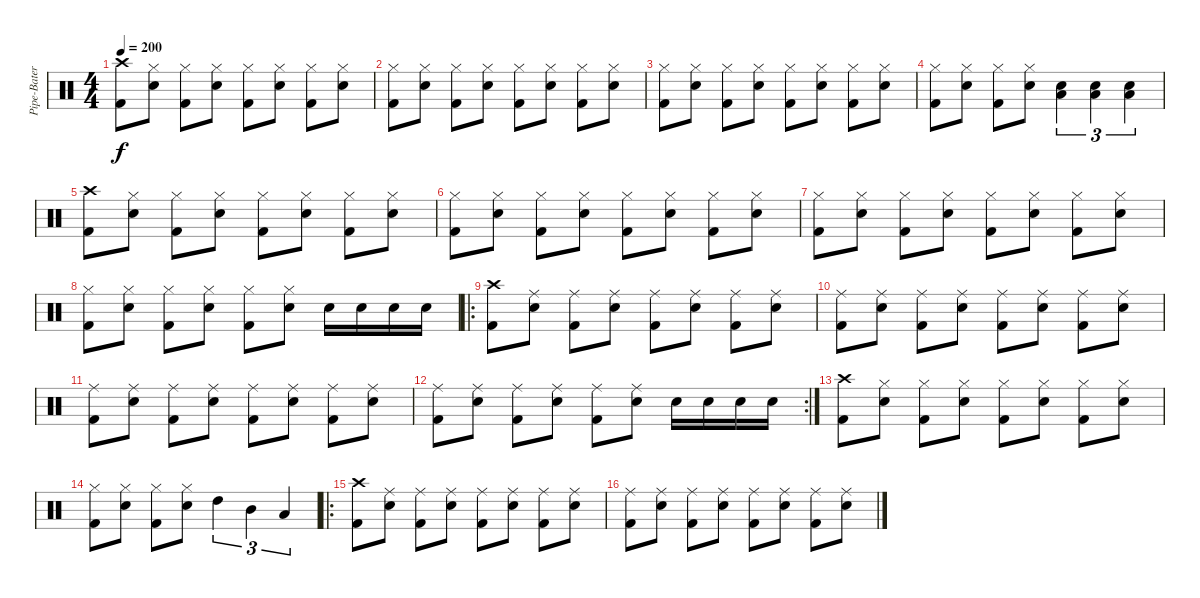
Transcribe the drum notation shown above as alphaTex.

\track ("Pipe-Bateria" "Pipe-Bater") {instrument percussion}
\staff {score}
\articulation defaults
\ts (4 4)
\tempo 200
\clef neutral
\ks c
("Kick (hit) 2" "Crash high (hit)").8{dy f} ("Snare (hit) 2" "Hi-Hat (closed)").8 ("Kick (hit) 2" "Hi-Hat (closed)").8 ("Snare (hit) 2" "Hi-Hat (closed)").8 ("Kick (hit) 2" "Hi-Hat (closed)").8 ("Snare (hit) 2" "Hi-Hat (closed)").8 ("Kick (hit) 2" "Hi-Hat (closed)").8 ("Snare (hit) 2" "Hi-Hat (closed)").8 |
("Kick (hit) 2" "Hi-Hat (closed)").8 ("Snare (hit) 2" "Hi-Hat (closed)").8 ("Kick (hit) 2" "Hi-Hat (closed)").8 ("Snare (hit) 2" "Hi-Hat (closed)").8 ("Kick (hit) 2" "Hi-Hat (closed)").8 ("Snare (hit) 2" "Hi-Hat (closed)").8 ("Kick (hit) 2" "Hi-Hat (closed)").8 ("Snare (hit) 2" "Hi-Hat (closed)").8 |
("Kick (hit) 2" "Hi-Hat (closed)").8 ("Snare (hit) 2" "Hi-Hat (closed)").8 ("Kick (hit) 2" "Hi-Hat (closed)").8 ("Snare (hit) 2" "Hi-Hat (closed)").8 ("Kick (hit) 2" "Hi-Hat (closed)").8 ("Snare (hit) 2" "Hi-Hat (closed)").8 ("Kick (hit) 2" "Hi-Hat (closed)").8 ("Snare (hit) 2" "Hi-Hat (closed)").8 |
("Kick (hit) 2" "Hi-Hat (closed)").8 ("Snare (hit) 2" "Hi-Hat (closed)").8 ("Kick (hit) 2" "Hi-Hat (closed)").8 ("Snare (hit) 2" "Hi-Hat (closed)").8 ("Snare (hit) 2" "Low Tom (hit)").4{tu (3 2)} ("Snare (hit) 2" "Low Tom (hit)").4{tu (3 2)} ("Snare (hit) 2" "Low Tom (hit)").4{tu (3 2)} |
("Kick (hit) 2" "Crash high (hit)").8 ("Snare (hit) 2" "Hi-Hat (closed)").8 ("Kick (hit) 2" "Hi-Hat (closed)").8 ("Snare (hit) 2" "Hi-Hat (closed)").8 ("Kick (hit) 2" "Hi-Hat (closed)").8 ("Snare (hit) 2" "Hi-Hat (closed)").8 ("Kick (hit) 2" "Hi-Hat (closed)").8 ("Snare (hit) 2" "Hi-Hat (closed)").8 |
("Kick (hit) 2" "Hi-Hat (closed)").8 ("Snare (hit) 2" "Hi-Hat (closed)").8 ("Kick (hit) 2" "Hi-Hat (closed)").8 ("Snare (hit) 2" "Hi-Hat (closed)").8 ("Kick (hit) 2" "Hi-Hat (closed)").8 ("Snare (hit) 2" "Hi-Hat (closed)").8 ("Kick (hit) 2" "Hi-Hat (closed)").8 ("Snare (hit) 2" "Hi-Hat (closed)").8 |
("Kick (hit) 2" "Hi-Hat (closed)").8 ("Snare (hit) 2" "Hi-Hat (closed)").8 ("Kick (hit) 2" "Hi-Hat (closed)").8 ("Snare (hit) 2" "Hi-Hat (closed)").8 ("Kick (hit) 2" "Hi-Hat (closed)").8 ("Snare (hit) 2" "Hi-Hat (closed)").8 ("Kick (hit) 2" "Hi-Hat (closed)").8 ("Snare (hit) 2" "Hi-Hat (closed)").8 |
("Kick (hit) 2" "Hi-Hat (closed)").8 ("Snare (hit) 2" "Hi-Hat (closed)").8 ("Kick (hit) 2" "Hi-Hat (closed)").8 ("Snare (hit) 2" "Hi-Hat (closed)").8 ("Kick (hit) 2" "Hi-Hat (closed)").8 ("Snare (hit) 2" "Hi-Hat (closed)").8 "Snare (hit) 2".16 "Snare (hit) 2".16 "Snare (hit) 2".16 "Snare (hit) 2".16 |
\ro
("Kick (hit) 2" "Crash high (hit)").8 ("Snare (hit) 2" "Ride (middle)").8 ("Kick (hit) 2" "Ride (middle)").8 ("Snare (hit) 2" "Ride (middle)").8 ("Kick (hit) 2" "Ride (middle)").8 ("Snare (hit) 2" "Ride (middle)").8 ("Kick (hit) 2" "Ride (middle)").8 ("Snare (hit) 2" "Ride (middle)").8 |
("Kick (hit) 2" "Ride (middle)").8 ("Snare (hit) 2" "Ride (middle)").8 ("Kick (hit) 2" "Ride (middle)").8 ("Snare (hit) 2" "Ride (middle)").8 ("Kick (hit) 2" "Ride (middle)").8 ("Snare (hit) 2" "Ride (middle)").8 ("Kick (hit) 2" "Ride (middle)").8 ("Snare (hit) 2" "Ride (middle)").8 |
("Kick (hit) 2" "Ride (middle)").8 ("Snare (hit) 2" "Ride (middle)").8 ("Kick (hit) 2" "Ride (middle)").8 ("Snare (hit) 2" "Ride (middle)").8 ("Kick (hit) 2" "Ride (middle)").8 ("Snare (hit) 2" "Ride (middle)").8 ("Kick (hit) 2" "Ride (middle)").8 ("Snare (hit) 2" "Ride (middle)").8 |
\rc 2
("Kick (hit) 2" "Ride (middle)").8 ("Snare (hit) 2" "Ride (middle)").8 ("Kick (hit) 2" "Ride (middle)").8 ("Snare (hit) 2" "Ride (middle)").8 ("Kick (hit) 2" "Ride (middle)").8 ("Snare (hit) 2" "Ride (middle)").8 "Snare (hit) 2".16 "Snare (hit) 2".16 "Snare (hit) 2".16 "Snare (hit) 2".16 |
("Kick (hit) 2" "Crash high (hit)").8 ("Snare (hit) 2" "Hi-Hat (closed)").8 ("Kick (hit) 2" "Hi-Hat (closed)").8 ("Snare (hit) 2" "Hi-Hat (closed)").8 ("Kick (hit) 2" "Hi-Hat (closed)").8 ("Snare (hit) 2" "Hi-Hat (closed)").8 ("Kick (hit) 2" "Hi-Hat (closed)").8 ("Snare (hit) 2" "Hi-Hat (closed)").8 |
("Kick (hit) 2" "Hi-Hat (closed)").8 ("Snare (hit) 2" "Hi-Hat (closed)").8 ("Kick (hit) 2" "Hi-Hat (closed)").8 ("Snare (hit) 2" "Hi-Hat (closed)").8 "High Tom (hit)".4{tu (3 2)} "Mid Tom (hit)".4{tu (3 2)} "Low Tom (hit)".4{tu (3 2)} |
\ro
("Kick (hit) 2" "Crash high (hit)").8 ("Snare (hit) 2" "Ride (middle)").8 ("Kick (hit) 2" "Ride (middle)").8 ("Snare (hit) 2" "Ride (middle)").8 ("Kick (hit) 2" "Ride (middle)").8 ("Snare (hit) 2" "Ride (middle)").8 ("Kick (hit) 2" "Ride (middle)").8 ("Snare (hit) 2" "Ride (middle)").8 |
("Kick (hit) 2" "Ride (middle)").8 ("Snare (hit) 2" "Ride (middle)").8 ("Kick (hit) 2" "Ride (middle)").8 ("Snare (hit) 2" "Ride (middle)").8 ("Kick (hit) 2" "Ride (middle)").8 ("Snare (hit) 2" "Ride (middle)").8 ("Kick (hit) 2" "Ride (middle)").8 ("Snare (hit) 2" "Ride (middle)").8
